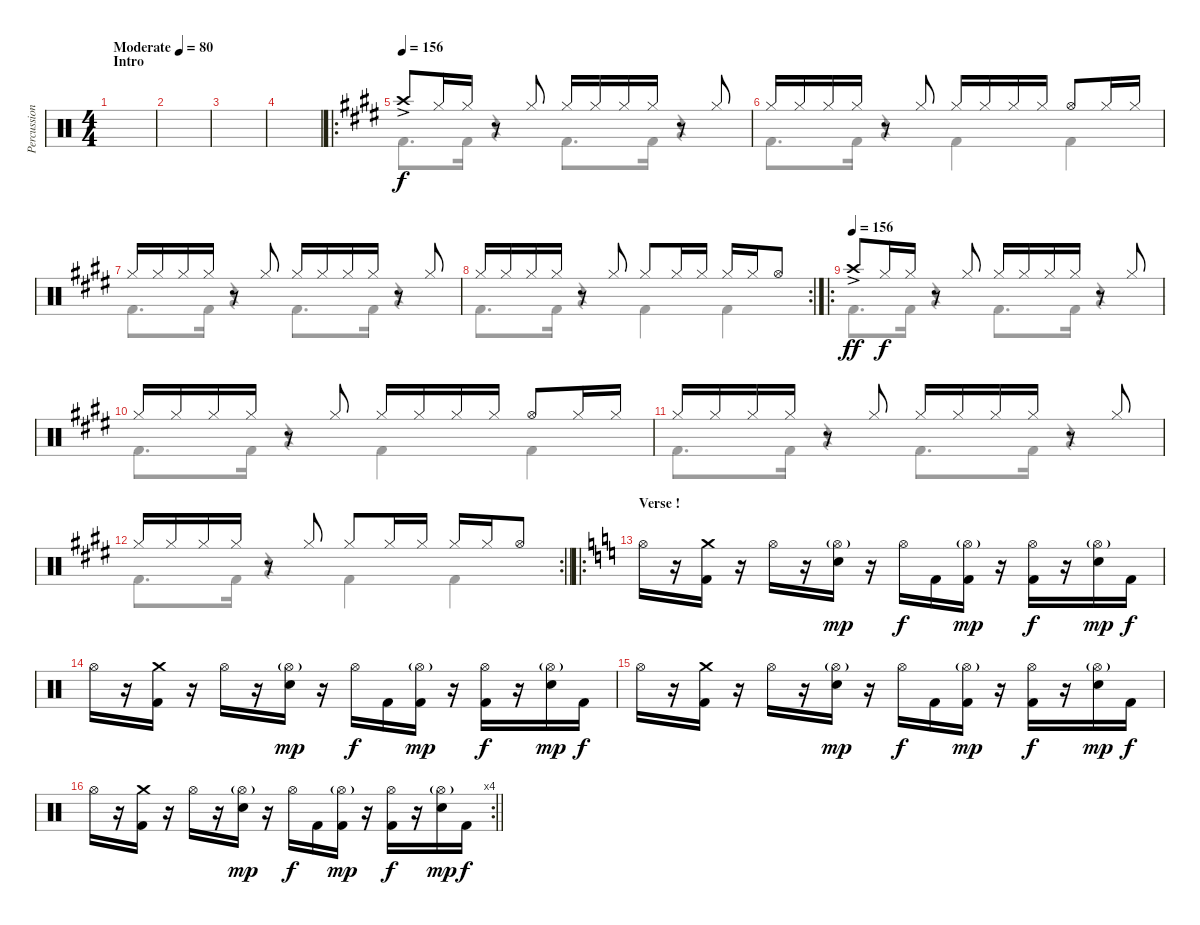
\track ("Percussion" "Percussion") {instrument percussion}
\staff {score}
\articulation defaults
\voice
\ts (4 4)
\section ("" "Intro")
\tempo (80 "Moderate")
\tempo 156
\tempo (80 "Moderate")
\clef neutral
\ks c
|
|
|
|
\ro
\tempo 156
\ks c#minor "Crash high (hit)"{ac}.8 "Hi-Hat (closed)".16{dy f} "Hi-Hat (closed)".16
r.8 "Hi-Hat (closed)".8 "Hi-Hat (closed)".16 "Hi-Hat (closed)".16 "Hi-Hat (closed)".16 "Hi-Hat (closed)".16 r.8 "Hi-Hat (closed)".8 |
"Hi-Hat (closed)".16 "Hi-Hat (closed)".16 "Hi-Hat (closed)".16 "Hi-Hat (closed)".16 r.8 "Hi-Hat (closed)".8 "Hi-Hat (closed)".16 "Hi-Hat (closed)".16 "Hi-Hat (closed)".16 "Hi-Hat (closed)".16 "Hi-Hat (open)".8 "Hi-Hat (closed)".16 "Hi-Hat (closed)".16 |
"Hi-Hat (closed)".16 "Hi-Hat (closed)".16 "Hi-Hat (closed)".16 "Hi-Hat (closed)".16 r.8 "Hi-Hat (closed)".8 "Hi-Hat (closed)".16 "Hi-Hat (closed)".16 "Hi-Hat (closed)".16 "Hi-Hat (closed)".16 r.8 "Hi-Hat (closed)".8 |
\rc 2 "Hi-Hat (closed)".16 "Hi-Hat (closed)".16 "Hi-Hat (closed)".16 "Hi-Hat (closed)".16
r.8 "Hi-Hat (closed)".8 "Hi-Hat (closed)".8 "Hi-Hat (closed)".16 "Hi-Hat (closed)".16 "Hi-Hat (closed)".16 "Hi-Hat (closed)".16 "Hi-Hat (open)".8 |
\ro
\tempo (156)
"Crash high (hit)"{ac}.8{dy ff} "Hi-Hat (closed)".16{dy f} "Hi-Hat (closed)".16 r.8 "Hi-Hat (closed)".8 "Hi-Hat (closed)".16 "Hi-Hat (closed)".16 "Hi-Hat (closed)".16 "Hi-Hat (closed)".16 r.8 "Hi-Hat (closed)".8 |
"Hi-Hat (closed)".16 "Hi-Hat (closed)".16 "Hi-Hat (closed)".16 "Hi-Hat (closed)".16 r.8 "Hi-Hat (closed)".8 "Hi-Hat (closed)".16 "Hi-Hat (closed)".16 "Hi-Hat (closed)".16 "Hi-Hat (closed)".16 "Hi-Hat (open)".8 "Hi-Hat (closed)".16 "Hi-Hat (closed)".16 |
"Hi-Hat (closed)".16 "Hi-Hat (closed)".16 "Hi-Hat (closed)".16 "Hi-Hat (closed)".16 r.8 "Hi-Hat (closed)".8 "Hi-Hat (closed)".16 "Hi-Hat (closed)".16 "Hi-Hat (closed)".16 "Hi-Hat (closed)".16 r.8 "Hi-Hat (closed)".8 |
\rc 2
\barLineRight lightlight "Hi-Hat (closed)".16 "Hi-Hat (closed)".16 "Hi-Hat (closed)".16 "Hi-Hat (closed)".16
r.8 "Hi-Hat (closed)".8 "Hi-Hat (closed)".8 "Hi-Hat (closed)".16 "Hi-Hat (closed)".16 "Hi-Hat (closed)".16 "Hi-Hat (closed)".16 "Hi-Hat (open)".8 |
\ro
\section ("" "Verse !")
\ks c "Hi-Hat (open)".16
r.16 ("Crash medium (hit)" "Kick (hit) 2").16 r.16 "Hi-Hat (open)".16 r.16 ("Hi-Hat (open)"{g} "Electric Snare (hit)").16{dy mp} r.16 "Hi-Hat (open)".16{dy f} "Kick (hit) 2".16 ("Hi-Hat (open)"{g} "Kick (hit) 2").16{dy mp} r.16 ("Hi-Hat (open)" "Kick (hit) 2").16{dy f} r.16 ("Hi-Hat (open)"{g} "Electric Snare (hit)").16{dy mp} "Kick (hit) 2".16{dy f} |
"Hi-Hat (open)".16 r.16 ("Crash medium (hit)" "Kick (hit) 2").16 r.16 "Hi-Hat (open)".16 r.16 ("Hi-Hat (open)"{g} "Electric Snare (hit)").16{dy mp} r.16 "Hi-Hat (open)".16{dy f} "Kick (hit) 2".16 ("Hi-Hat (open)"{g} "Kick (hit) 2").16{dy mp} r.16 ("Hi-Hat (open)" "Kick (hit) 2").16{dy f} r.16 ("Hi-Hat (open)"{g} "Electric Snare (hit)").16{dy mp} "Kick (hit) 2".16{dy f} |
"Hi-Hat (open)".16 r.16 ("Crash medium (hit)" "Kick (hit) 2").16 r.16 "Hi-Hat (open)".16 r.16 ("Hi-Hat (open)"{g} "Electric Snare (hit)").16{dy mp} r.16 "Hi-Hat (open)".16{dy f} "Kick (hit) 2".16 ("Hi-Hat (open)"{g} "Kick (hit) 2").16{dy mp} r.16 ("Hi-Hat (open)" "Kick (hit) 2").16{dy f} r.16 ("Hi-Hat (open)"{g} "Electric Snare (hit)").16{dy mp} "Kick (hit) 2".16{dy f} |
\rc 4
\barLineRight lightlight "Hi-Hat (open)".16
r.16 ("Crash medium (hit)" "Kick (hit) 2").16 r.16 "Hi-Hat (open)".16 r.16 ("Hi-Hat (open)"{g} "Electric Snare (hit)").16{dy mp} r.16 "Hi-Hat (open)".16{dy f} "Kick (hit) 2".16 ("Hi-Hat (open)"{g} "Kick (hit) 2").16{dy mp} r.16 ("Hi-Hat (open)" "Kick (hit) 2").16{dy f} r.16 ("Hi-Hat (open)"{g} "Electric Snare (hit)").16{dy mp} "Kick (hit) 2".16{dy f}
\voice
\clef neutral
\ottava regular
\simile none
\ks c
|
|
|
|
\ks c#minor "Kick (hit) 2".8{d} "Kick (hit) 2".16
r.4 "Kick (hit) 2".8{d} "Kick (hit) 2".16 r.4 |
"Kick (hit) 2".8{d} "Kick (hit) 2".16 r.4 "Kick (hit) 2".4 "Kick (hit) 2".4 |
"Kick (hit) 2".8{d} "Kick (hit) 2".16 r.4 "Kick (hit) 2".8{d} "Kick (hit) 2".16 r.4 |
"Kick (hit) 2".8{d} "Kick (hit) 2".16 r.4 "Kick (hit) 2".4 "Kick (hit) 2".4 |
"Kick (hit) 2".8{d} "Kick (hit) 2".16 r.4 "Kick (hit) 2".8{d} "Kick (hit) 2".16 r.4 |
"Kick (hit) 2".8{d} "Kick (hit) 2".16 r.4 "Kick (hit) 2".4 "Kick (hit) 2".4 |
"Kick (hit) 2".8{d} "Kick (hit) 2".16 r.4 "Kick (hit) 2".8{d} "Kick (hit) 2".16 r.4 |
\barLineRight lightlight "Kick (hit) 2".8{d} "Kick (hit) 2".16
r.4 "Kick (hit) 2".4 "Kick (hit) 2".4 |
\ks c
|
|
|
\barLineRight lightlight
